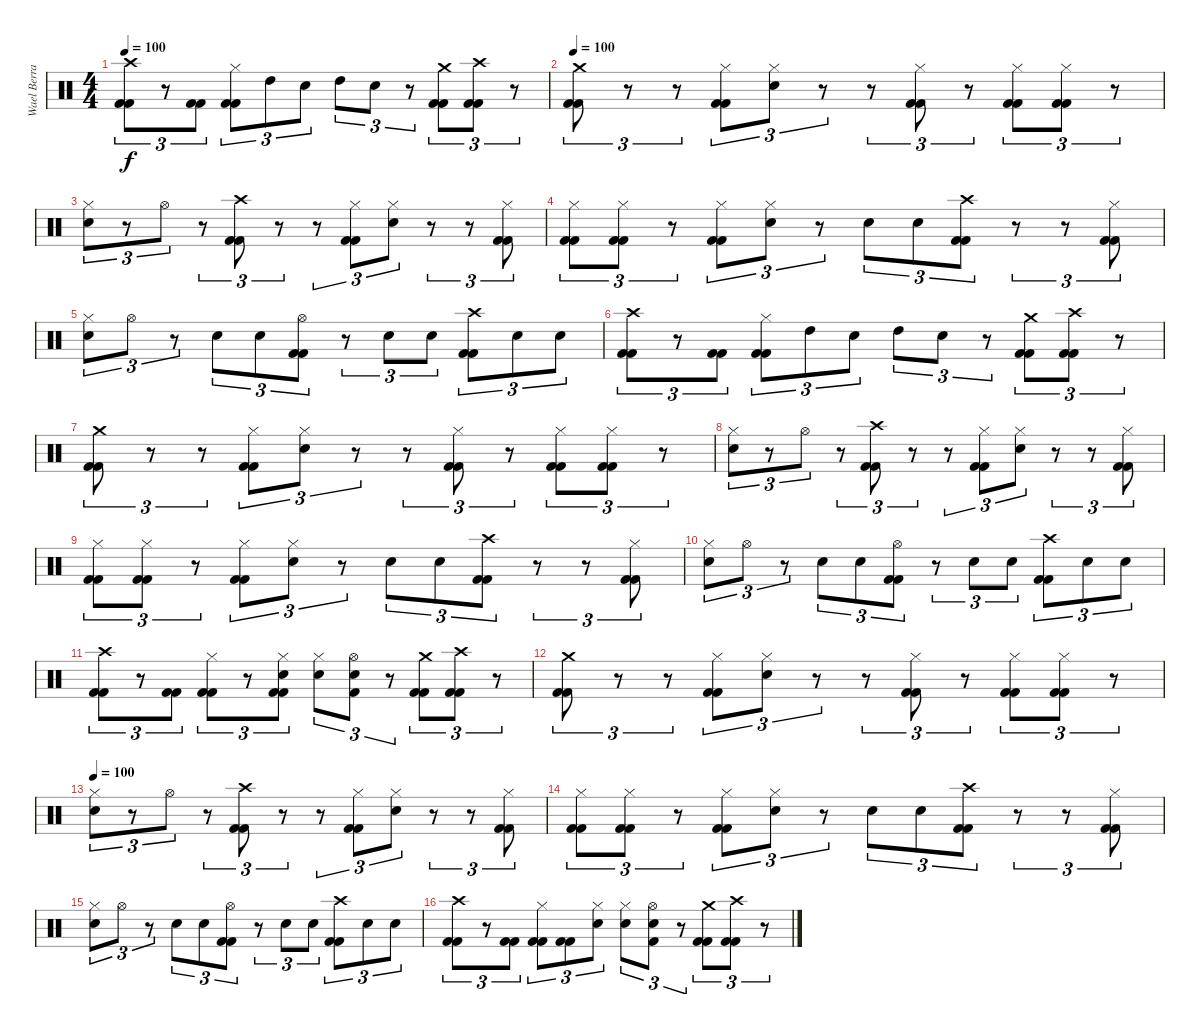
\track ("Wael Berrais" "Wael Berra") {instrument percussion}
\staff {score}
\articulation defaults
\ts (4 4)
\tempo 100
\clef neutral
\ks c
("Crash high (hit)" "Kick (hit) 2" "Kick (hit) 2").8{tu (3 2) dy f} r.8{tu (3 2)} ("Kick (hit) 2" "Kick (hit) 2").8{tu (3 2)} ("Hi-Hat (closed)" "Kick (hit) 2" "Kick (hit) 2").8{tu (3 2)} "High Tom (hit)".8{tu (3 2)} "Electric Snare (hit)".8{tu (3 2)} "High Tom (hit)".8{tu (3 2)} "Electric Snare (hit)".8{tu (3 2)} r.8{tu (3 2)} ("Crash medium (hit)" "Kick (hit) 2" "Kick (hit) 2").8{tu (3 2)} ("Crash high (hit)" "Kick (hit) 2" "Kick (hit) 2").8{tu (3 2)} r.8{tu (3 2)} |
\tempo 100
("Crash medium (hit)" "Kick (hit) 2" "Kick (hit) 2").8{tu (3 2)} r.8{tu (3 2)} r.8{tu (3 2)} ("Hi-Hat (closed)" "Kick (hit) 2" "Kick (hit) 2").8{tu (3 2)} ("Hi-Hat (closed)" "Electric Snare (hit)").8{tu (3 2)} r.8{tu (3 2)} r.8{tu (3 2)} ("Kick (hit) 2" "Kick (hit) 2" "Hi-Hat (closed)").8{tu (3 2)} r.8{tu (3 2)} ("Hi-Hat (closed)" "Kick (hit) 2" "Kick (hit) 2").8{tu (3 2)} ("Hi-Hat (closed)" "Kick (hit) 2" "Kick (hit) 2").8{tu (3 2)} r.8{tu (3 2)} |
("Electric Snare (hit)" "Hi-Hat (closed)").8{tu (3 2)} r.8{tu (3 2)} "Hi-Hat (open)".8{tu (3 2)} r.8{tu (3 2)} ("Crash high (hit)" "Kick (hit) 2" "Kick (hit) 2").8{tu (3 2)} r.8{tu (3 2)} r.8{tu (3 2)} ("Hi-Hat (closed)" "Kick (hit) 2" "Kick (hit) 2").8{tu (3 2)} ("Hi-Hat (closed)" "Electric Snare (hit)").8{tu (3 2)} r.8{tu (3 2)} r.8{tu (3 2)} ("Kick (hit) 2" "Kick (hit) 2" "Hi-Hat (closed)").8{tu (3 2)} |
("Hi-Hat (closed)" "Kick (hit) 2" "Kick (hit) 2").8{tu (3 2)} ("Hi-Hat (closed)" "Kick (hit) 2" "Kick (hit) 2").8{tu (3 2)} r.8{tu (3 2)} ("Hi-Hat (closed)" "Kick (hit) 2" "Kick (hit) 2").8{tu (3 2)} ("Electric Snare (hit)" "Hi-Hat (closed)").8{tu (3 2)} r.8{tu (3 2)} "Electric Snare (hit)".8{tu (3 2)} "Electric Snare (hit)".8{tu (3 2)} ("Crash high (hit)" "Kick (hit) 2" "Kick (hit) 2").8{tu (3 2)} r.8{tu (3 2)} r.8{tu (3 2)} ("Hi-Hat (closed)" "Kick (hit) 2" "Kick (hit) 2").8{tu (3 2)} |
("Electric Snare (hit)" "Hi-Hat (closed)").8{tu (3 2)} "Hi-Hat (open)".8{tu (3 2)} r.8{tu (3 2)} "Electric Snare (hit)".8{tu (3 2)} "Electric Snare (hit)".8{tu (3 2)} ("Hi-Hat (open)" "Kick (hit) 2" "Kick (hit) 2").8{tu (3 2)} r.8{tu (3 2)} "Electric Snare (hit)".8{tu (3 2)} "Electric Snare (hit)".8{tu (3 2)} ("Crash high (hit)" "Kick (hit) 2" "Kick (hit) 2").8{tu (3 2)} "Electric Snare (hit)".8{tu (3 2)} "Electric Snare (hit)".8{tu (3 2)} |
("Crash high (hit)" "Kick (hit) 2" "Kick (hit) 2").8{tu (3 2)} r.8{tu (3 2)} ("Kick (hit) 2" "Kick (hit) 2").8{tu (3 2)} ("Hi-Hat (closed)" "Kick (hit) 2" "Kick (hit) 2").8{tu (3 2)} "High Tom (hit)".8{tu (3 2)} "Electric Snare (hit)".8{tu (3 2)} "High Tom (hit)".8{tu (3 2)} "Electric Snare (hit)".8{tu (3 2)} r.8{tu (3 2)} ("Crash medium (hit)" "Kick (hit) 2" "Kick (hit) 2").8{tu (3 2)} ("Crash high (hit)" "Kick (hit) 2" "Kick (hit) 2").8{tu (3 2)} r.8{tu (3 2)} |
("Crash medium (hit)" "Kick (hit) 2" "Kick (hit) 2").8{tu (3 2)} r.8{tu (3 2)} r.8{tu (3 2)} ("Hi-Hat (closed)" "Kick (hit) 2" "Kick (hit) 2").8{tu (3 2)} ("Hi-Hat (closed)" "Electric Snare (hit)").8{tu (3 2)} r.8{tu (3 2)} r.8{tu (3 2)} ("Kick (hit) 2" "Kick (hit) 2" "Hi-Hat (closed)").8{tu (3 2)} r.8{tu (3 2)} ("Hi-Hat (closed)" "Kick (hit) 2" "Kick (hit) 2").8{tu (3 2)} ("Hi-Hat (closed)" "Kick (hit) 2" "Kick (hit) 2").8{tu (3 2)} r.8{tu (3 2)} |
("Electric Snare (hit)" "Hi-Hat (closed)").8{tu (3 2)} r.8{tu (3 2)} "Hi-Hat (open)".8{tu (3 2)} r.8{tu (3 2)} ("Crash high (hit)" "Kick (hit) 2" "Kick (hit) 2").8{tu (3 2)} r.8{tu (3 2)} r.8{tu (3 2)} ("Hi-Hat (closed)" "Kick (hit) 2" "Kick (hit) 2").8{tu (3 2)} ("Hi-Hat (closed)" "Electric Snare (hit)").8{tu (3 2)} r.8{tu (3 2)} r.8{tu (3 2)} ("Kick (hit) 2" "Kick (hit) 2" "Hi-Hat (closed)").8{tu (3 2)} |
("Hi-Hat (closed)" "Kick (hit) 2" "Kick (hit) 2").8{tu (3 2)} ("Hi-Hat (closed)" "Kick (hit) 2" "Kick (hit) 2").8{tu (3 2)} r.8{tu (3 2)} ("Hi-Hat (closed)" "Kick (hit) 2" "Kick (hit) 2").8{tu (3 2)} ("Electric Snare (hit)" "Hi-Hat (closed)").8{tu (3 2)} r.8{tu (3 2)} "Electric Snare (hit)".8{tu (3 2)} "Electric Snare (hit)".8{tu (3 2)} ("Crash high (hit)" "Kick (hit) 2" "Kick (hit) 2").8{tu (3 2)} r.8{tu (3 2)} r.8{tu (3 2)} ("Hi-Hat (closed)" "Kick (hit) 2" "Kick (hit) 2").8{tu (3 2)} |
("Electric Snare (hit)" "Hi-Hat (closed)").8{tu (3 2)} "Hi-Hat (open)".8{tu (3 2)} r.8{tu (3 2)} "Electric Snare (hit)".8{tu (3 2)} "Electric Snare (hit)".8{tu (3 2)} ("Hi-Hat (open)" "Kick (hit) 2" "Kick (hit) 2").8{tu (3 2)} r.8{tu (3 2)} "Electric Snare (hit)".8{tu (3 2)} "Electric Snare (hit)".8{tu (3 2)} ("Crash high (hit)" "Kick (hit) 2" "Kick (hit) 2").8{tu (3 2)} "Electric Snare (hit)".8{tu (3 2)} "Electric Snare (hit)".8{tu (3 2)} |
("Crash high (hit)" "Kick (hit) 2" "Kick (hit) 2").8{tu (3 2)} r.8{tu (3 2)} ("Kick (hit) 2" "Kick (hit) 2").8{tu (3 2)} ("Hi-Hat (closed)" "Kick (hit) 2" "Kick (hit) 2").8{tu (3 2)} r.8{tu (3 2)} ("Electric Snare (hit)" "Kick (hit) 2" "Kick (hit) 2" "Hi-Hat (closed)").8{tu (3 2)} ("Electric Snare (hit)" "Hi-Hat (closed)").8{tu (3 2)} ("Electric Snare (hit)" "Kick (hit) 2" "Hi-Hat (open)").8{tu (3 2)} r.8{tu (3 2)} ("Crash medium (hit)" "Kick (hit) 2" "Kick (hit) 2").8{tu (3 2)} ("Crash high (hit)" "Kick (hit) 2" "Kick (hit) 2").8{tu (3 2)} r.8{tu (3 2)} |
("Crash medium (hit)" "Kick (hit) 2" "Kick (hit) 2").8{tu (3 2)} r.8{tu (3 2)} r.8{tu (3 2)} ("Hi-Hat (closed)" "Kick (hit) 2" "Kick (hit) 2").8{tu (3 2)} ("Hi-Hat (closed)" "Electric Snare (hit)").8{tu (3 2)} r.8{tu (3 2)} r.8{tu (3 2)} ("Kick (hit) 2" "Kick (hit) 2" "Hi-Hat (closed)").8{tu (3 2)} r.8{tu (3 2)} ("Hi-Hat (closed)" "Kick (hit) 2" "Kick (hit) 2").8{tu (3 2)} ("Hi-Hat (closed)" "Kick (hit) 2" "Kick (hit) 2").8{tu (3 2)} r.8{tu (3 2)} |
\tempo 100
("Electric Snare (hit)" "Hi-Hat (closed)").8{tu (3 2)} r.8{tu (3 2)} "Hi-Hat (open)".8{tu (3 2)} r.8{tu (3 2)} ("Crash high (hit)" "Kick (hit) 2" "Kick (hit) 2").8{tu (3 2)} r.8{tu (3 2)} r.8{tu (3 2)} ("Hi-Hat (closed)" "Kick (hit) 2" "Kick (hit) 2").8{tu (3 2)} ("Hi-Hat (closed)" "Electric Snare (hit)").8{tu (3 2)} r.8{tu (3 2)} r.8{tu (3 2)} ("Kick (hit) 2" "Kick (hit) 2" "Hi-Hat (closed)").8{tu (3 2)} |
("Hi-Hat (closed)" "Kick (hit) 2" "Kick (hit) 2").8{tu (3 2)} ("Hi-Hat (closed)" "Kick (hit) 2" "Kick (hit) 2").8{tu (3 2)} r.8{tu (3 2)} ("Hi-Hat (closed)" "Kick (hit) 2" "Kick (hit) 2").8{tu (3 2)} ("Electric Snare (hit)" "Hi-Hat (closed)").8{tu (3 2)} r.8{tu (3 2)} "Electric Snare (hit)".8{tu (3 2)} "Electric Snare (hit)".8{tu (3 2)} ("Crash high (hit)" "Kick (hit) 2" "Kick (hit) 2").8{tu (3 2)} r.8{tu (3 2)} r.8{tu (3 2)} ("Hi-Hat (closed)" "Kick (hit) 2" "Kick (hit) 2").8{tu (3 2)} |
("Electric Snare (hit)" "Hi-Hat (closed)").8{tu (3 2)} "Hi-Hat (open)".8{tu (3 2)} r.8{tu (3 2)} "Electric Snare (hit)".8{tu (3 2)} "Electric Snare (hit)".8{tu (3 2)} ("Hi-Hat (open)" "Kick (hit) 2" "Kick (hit) 2").8{tu (3 2)} r.8{tu (3 2)} "Electric Snare (hit)".8{tu (3 2)} "Electric Snare (hit)".8{tu (3 2)} ("Crash high (hit)" "Kick (hit) 2" "Kick (hit) 2").8{tu (3 2)} "Electric Snare (hit)".8{tu (3 2)} "Electric Snare (hit)".8{tu (3 2)} |
("Crash high (hit)" "Kick (hit) 2" "Kick (hit) 2").8{tu (3 2)} r.8{tu (3 2)} ("Kick (hit) 2" "Kick (hit) 2").8{tu (3 2)} ("Hi-Hat (closed)" "Kick (hit) 2" "Kick (hit) 2").8{tu (3 2)} ("Kick (hit) 2" "Kick (hit) 2").8{tu (3 2)} ("Electric Snare (hit)" "Hi-Hat (closed)").8{tu (3 2)} ("Electric Snare (hit)" "Hi-Hat (closed)").8{tu (3 2)} ("Electric Snare (hit)" "Kick (hit) 2" "Hi-Hat (open)").8{tu (3 2)} r.8{tu (3 2)} ("Crash medium (hit)" "Kick (hit) 2" "Kick (hit) 2").8{tu (3 2)} ("Crash high (hit)" "Kick (hit) 2" "Kick (hit) 2").8{tu (3 2)} r.8{tu (3 2)}
